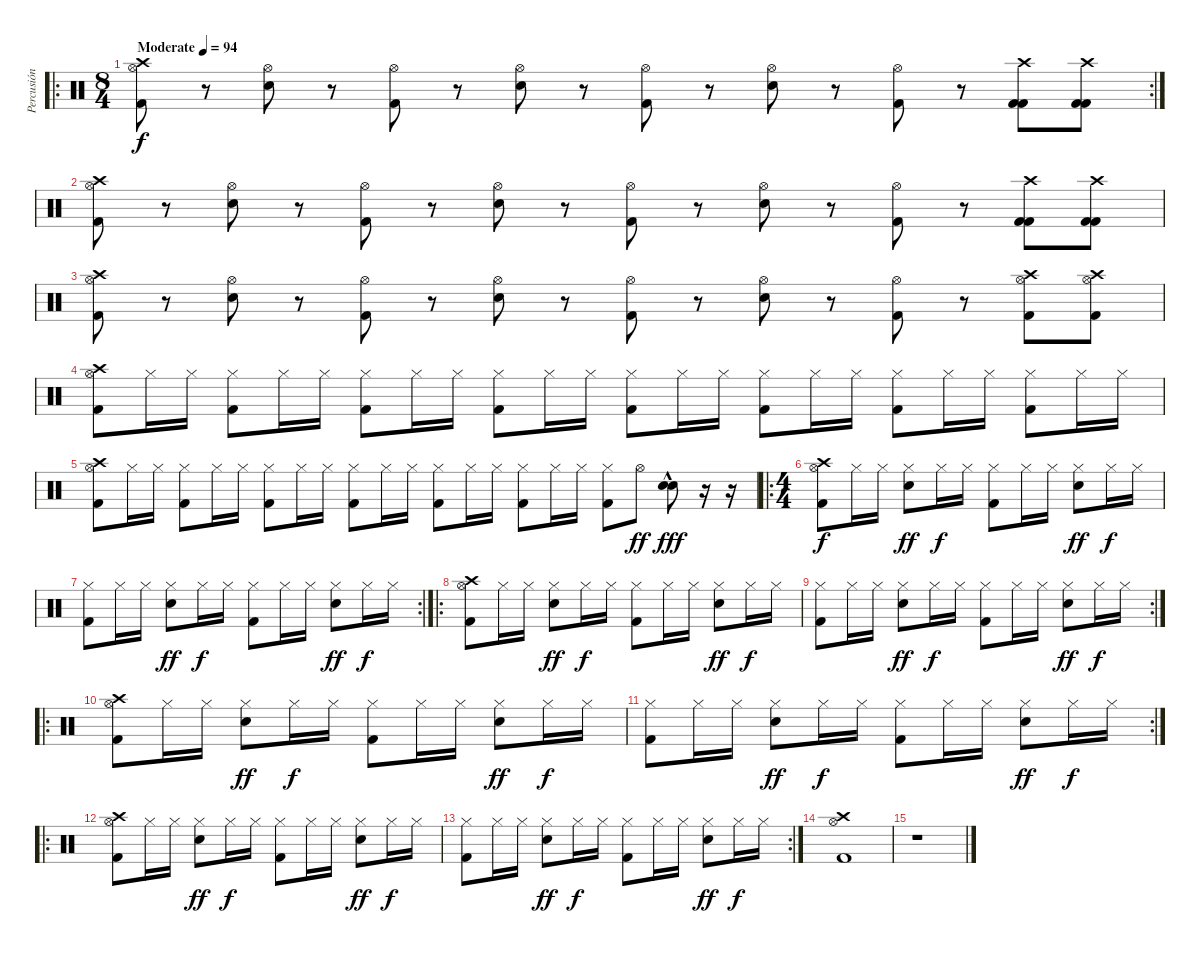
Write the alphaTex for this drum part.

\track ("Percusión" "Percusión") {instrument percussion}
\staff {score}
\articulation defaults
\ro
\rc 2
\ts (8 4)
\tempo (94 "Moderate")
\clef neutral
\ks c
("Crash high (hit)" "Hi-Hat (open)" "Kick (hit) 2").8{dy f} r.8 ("Hi-Hat (open)" "Electric Snare (hit)").8 r.8 ("Hi-Hat (open)" "Kick (hit) 2").8 r.8 ("Hi-Hat (open)" "Electric Snare (hit)").8 r.8 ("Hi-Hat (open)" "Kick (hit) 2").8 r.8 ("Hi-Hat (open)" "Electric Snare (hit)").8 r.8 ("Hi-Hat (open)" "Kick (hit) 2").8 r.8 ("Crash high (hit)" "Kick (hit) 2" "Kick (hit) 2").8 ("Crash high (hit)" "Kick (hit) 2" "Kick (hit) 2").8 |
("Crash high (hit)" "Hi-Hat (open)" "Kick (hit) 2").8 r.8 ("Hi-Hat (open)" "Electric Snare (hit)").8 r.8 ("Hi-Hat (open)" "Kick (hit) 2").8 r.8 ("Hi-Hat (open)" "Electric Snare (hit)").8 r.8 ("Hi-Hat (open)" "Kick (hit) 2").8 r.8 ("Hi-Hat (open)" "Electric Snare (hit)").8 r.8 ("Hi-Hat (open)" "Kick (hit) 2").8 r.8 ("Crash high (hit)" "Kick (hit) 2" "Kick (hit) 2").8 ("Crash high (hit)" "Kick (hit) 2" "Kick (hit) 2").8 |
("Crash high (hit)" "Hi-Hat (open)" "Kick (hit) 2").8 r.8 ("Hi-Hat (open)" "Electric Snare (hit)").8 r.8 ("Hi-Hat (open)" "Kick (hit) 2").8 r.8 ("Hi-Hat (open)" "Electric Snare (hit)").8 r.8 ("Hi-Hat (open)" "Kick (hit) 2").8 r.8 ("Hi-Hat (open)" "Electric Snare (hit)").8 r.8 ("Hi-Hat (open)" "Kick (hit) 2").8 r.8 ("Crash high (hit)" "Hi-Hat (open)" "Kick (hit) 2").8 ("Crash high (hit)" "Hi-Hat (open)" "Kick (hit) 2").8 |
("Crash high (hit)" "Hi-Hat (open)" "Kick (hit) 2").8 "Hi-Hat (closed)".16 "Hi-Hat (closed)".16 ("Hi-Hat (closed)" "Kick (hit) 2").8 "Hi-Hat (closed)".16 "Hi-Hat (closed)".16 ("Hi-Hat (closed)" "Kick (hit) 2").8 "Hi-Hat (closed)".16 "Hi-Hat (closed)".16 ("Hi-Hat (closed)" "Kick (hit) 2").8 "Hi-Hat (closed)".16 "Hi-Hat (closed)".16 ("Hi-Hat (closed)" "Kick (hit) 2").8 "Hi-Hat (closed)".16 "Hi-Hat (closed)".16 ("Hi-Hat (closed)" "Kick (hit) 2").8 "Hi-Hat (closed)".16 "Hi-Hat (closed)".16 ("Hi-Hat (closed)" "Kick (hit) 2").8 "Hi-Hat (closed)".16 "Hi-Hat (closed)".16 ("Hi-Hat (closed)" "Kick (hit) 2").8 "Hi-Hat (closed)".16 "Hi-Hat (closed)".16 |
("Crash high (hit)" "Hi-Hat (open)" "Kick (hit) 2").8 "Hi-Hat (closed)".16 "Hi-Hat (closed)".16 ("Hi-Hat (closed)" "Kick (hit) 2").8 "Hi-Hat (closed)".16 "Hi-Hat (closed)".16 ("Hi-Hat (closed)" "Kick (hit) 2").8 "Hi-Hat (closed)".16 "Hi-Hat (closed)".16 ("Hi-Hat (closed)" "Kick (hit) 2").8 "Hi-Hat (closed)".16 "Hi-Hat (closed)".16 ("Hi-Hat (closed)" "Kick (hit) 2").8 "Hi-Hat (closed)".16 "Hi-Hat (closed)".16 ("Hi-Hat (closed)" "Kick (hit) 2").8 "Hi-Hat (closed)".16 "Hi-Hat (closed)".16 ("Hi-Hat (closed)" "Kick (hit) 2").8 "Hi-Hat (open)".8{dy ff} ("Electric Snare (hit)"{hac} "Electric Snare (hit)"{hac}).8{dy fff} r.16 r.16 |
\ro
\ts (4 4)
("Crash high (hit)" "Hi-Hat (open)" "Kick (hit) 2").8{dy f} "Hi-Hat (closed)".16 "Hi-Hat (closed)".16 ("Hi-Hat (closed)" "Electric Snare (hit)").8{dy ff} "Hi-Hat (closed)".16{dy f} "Hi-Hat (closed)".16 ("Hi-Hat (closed)" "Kick (hit) 2").8 "Hi-Hat (closed)".16 "Hi-Hat (closed)".16 ("Hi-Hat (closed)" "Electric Snare (hit)").8{dy ff} "Hi-Hat (closed)".16{dy f} "Hi-Hat (closed)".16 |
\rc 2
("Hi-Hat (closed)" "Kick (hit) 2").8 "Hi-Hat (closed)".16 "Hi-Hat (closed)".16 ("Hi-Hat (closed)" "Electric Snare (hit)").8{dy ff} "Hi-Hat (closed)".16{dy f} "Hi-Hat (closed)".16 ("Hi-Hat (closed)" "Kick (hit) 2").8 "Hi-Hat (closed)".16 "Hi-Hat (closed)".16 ("Hi-Hat (closed)" "Electric Snare (hit)").8{dy ff} "Hi-Hat (closed)".16{dy f} "Hi-Hat (closed)".16 |
\ro
("Crash high (hit)" "Hi-Hat (open)" "Kick (hit) 2").8 "Hi-Hat (closed)".16 "Hi-Hat (closed)".16 ("Hi-Hat (closed)" "Electric Snare (hit)").8{dy ff} "Hi-Hat (closed)".16{dy f} "Hi-Hat (closed)".16 ("Hi-Hat (closed)" "Kick (hit) 2").8 "Hi-Hat (closed)".16 "Hi-Hat (closed)".16 ("Hi-Hat (closed)" "Electric Snare (hit)").8{dy ff} "Hi-Hat (closed)".16{dy f} "Hi-Hat (closed)".16 |
\rc 2
("Hi-Hat (closed)" "Kick (hit) 2").8 "Hi-Hat (closed)".16 "Hi-Hat (closed)".16 ("Hi-Hat (closed)" "Electric Snare (hit)").8{dy ff} "Hi-Hat (closed)".16{dy f} "Hi-Hat (closed)".16 ("Hi-Hat (closed)" "Kick (hit) 2").8 "Hi-Hat (closed)".16 "Hi-Hat (closed)".16 ("Hi-Hat (closed)" "Electric Snare (hit)").8{dy ff} "Hi-Hat (closed)".16{dy f} "Hi-Hat (closed)".16 |
\ro
("Crash high (hit)" "Hi-Hat (open)" "Kick (hit) 2").8 "Hi-Hat (closed)".16 "Hi-Hat (closed)".16 ("Hi-Hat (closed)" "Electric Snare (hit)").8{dy ff} "Hi-Hat (closed)".16{dy f} "Hi-Hat (closed)".16 ("Hi-Hat (closed)" "Kick (hit) 2").8 "Hi-Hat (closed)".16 "Hi-Hat (closed)".16 ("Hi-Hat (closed)" "Electric Snare (hit)").8{dy ff} "Hi-Hat (closed)".16{dy f} "Hi-Hat (closed)".16 |
\rc 2
("Hi-Hat (closed)" "Kick (hit) 2").8 "Hi-Hat (closed)".16 "Hi-Hat (closed)".16 ("Hi-Hat (closed)" "Electric Snare (hit)").8{dy ff} "Hi-Hat (closed)".16{dy f} "Hi-Hat (closed)".16 ("Hi-Hat (closed)" "Kick (hit) 2").8 "Hi-Hat (closed)".16 "Hi-Hat (closed)".16 ("Hi-Hat (closed)" "Electric Snare (hit)").8{dy ff} "Hi-Hat (closed)".16{dy f} "Hi-Hat (closed)".16 |
\ro
("Crash high (hit)" "Hi-Hat (open)" "Kick (hit) 2").8 "Hi-Hat (closed)".16 "Hi-Hat (closed)".16 ("Hi-Hat (closed)" "Electric Snare (hit)").8{dy ff} "Hi-Hat (closed)".16{dy f} "Hi-Hat (closed)".16 ("Hi-Hat (closed)" "Kick (hit) 2").8 "Hi-Hat (closed)".16 "Hi-Hat (closed)".16 ("Hi-Hat (closed)" "Electric Snare (hit)").8{dy ff} "Hi-Hat (closed)".16{dy f} "Hi-Hat (closed)".16 |
\rc 2
("Hi-Hat (closed)" "Kick (hit) 2").8 "Hi-Hat (closed)".16 "Hi-Hat (closed)".16 ("Hi-Hat (closed)" "Electric Snare (hit)").8{dy ff} "Hi-Hat (closed)".16{dy f} "Hi-Hat (closed)".16 ("Hi-Hat (closed)" "Kick (hit) 2").8 "Hi-Hat (closed)".16 "Hi-Hat (closed)".16 ("Hi-Hat (closed)" "Electric Snare (hit)").8{dy ff} "Hi-Hat (closed)".16{dy f} "Hi-Hat (closed)".16 |
("Crash high (hit)" "Hi-Hat (open)" "Kick (hit) 2").1 |
r.1
